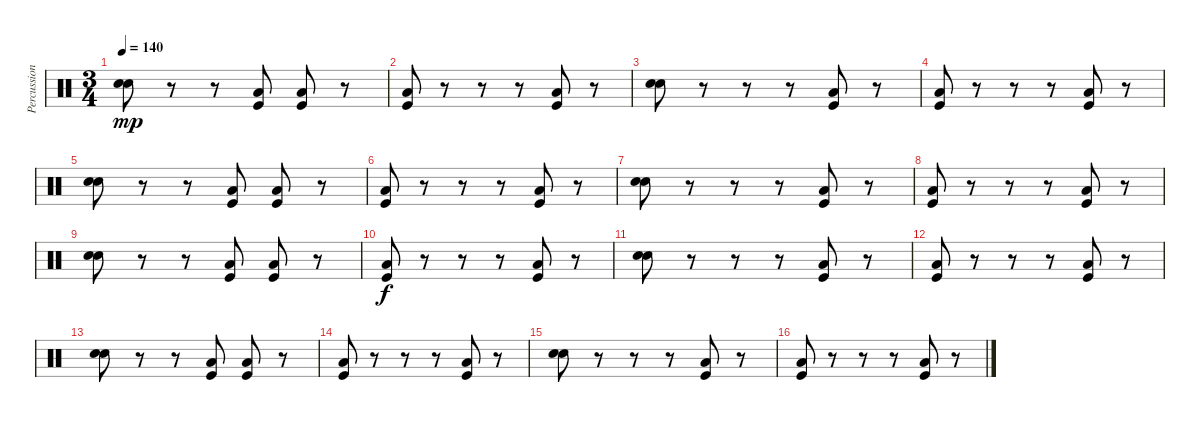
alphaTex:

\track ("Percussion" "Percussion") {instrument percussion}
\staff {score}
\articulation defaults
\ts (3 4)
\tempo 140
\clef neutral
\ks c
("Electric Snare (hit)" "Snare (hit) 2").8{dy mp} r.8 r.8 ("Kick (hit)" "Low Floor Tom (hit)").8 ("Kick (hit)" "Low Floor Tom (hit)").8 r.8 |
("Kick (hit)" "Low Floor Tom (hit)").8 r.8 r.8 r.8 ("Kick (hit)" "Low Floor Tom (hit)").8 r.8 |
("Electric Snare (hit)" "Snare (hit) 2").8 r.8 r.8 r.8 ("Kick (hit)" "Low Floor Tom (hit)").8 r.8 |
("Kick (hit)" "Low Floor Tom (hit)").8 r.8 r.8 r.8 ("Kick (hit)" "Low Floor Tom (hit)").8 r.8 |
("Electric Snare (hit)" "Snare (hit) 2").8 r.8 r.8 ("Kick (hit)" "Low Floor Tom (hit)").8 ("Kick (hit)" "Low Floor Tom (hit)").8 r.8 |
("Kick (hit)" "Low Floor Tom (hit)").8 r.8 r.8 r.8 ("Kick (hit)" "Low Floor Tom (hit)").8 r.8 |
("Electric Snare (hit)" "Snare (hit) 2").8 r.8 r.8 r.8 ("Kick (hit)" "Low Floor Tom (hit)").8 r.8 |
("Kick (hit)" "Low Floor Tom (hit)").8 r.8 r.8 r.8 ("Kick (hit)" "Low Floor Tom (hit)").8 r.8 |
("Electric Snare (hit)" "Snare (hit) 2").8 r.8 r.8 ("Kick (hit)" "Low Floor Tom (hit)").8 ("Kick (hit)" "Low Floor Tom (hit)").8 r.8 |
("Kick (hit)" "Low Floor Tom (hit)").8{dy f} r.8 r.8 r.8 ("Kick (hit)" "Low Floor Tom (hit)").8 r.8 |
("Electric Snare (hit)" "Snare (hit) 2").8 r.8 r.8 r.8 ("Kick (hit)" "Low Floor Tom (hit)").8 r.8 |
("Kick (hit)" "Low Floor Tom (hit)").8 r.8 r.8 r.8 ("Kick (hit)" "Low Floor Tom (hit)").8 r.8 |
("Electric Snare (hit)" "Snare (hit) 2").8 r.8 r.8 ("Kick (hit)" "Low Floor Tom (hit)").8 ("Kick (hit)" "Low Floor Tom (hit)").8 r.8 |
("Kick (hit)" "Low Floor Tom (hit)").8 r.8 r.8 r.8 ("Kick (hit)" "Low Floor Tom (hit)").8 r.8 |
("Electric Snare (hit)" "Snare (hit) 2").8 r.8 r.8 r.8 ("Kick (hit)" "Low Floor Tom (hit)").8 r.8 |
("Kick (hit)" "Low Floor Tom (hit)").8 r.8 r.8 r.8 ("Kick (hit)" "Low Floor Tom (hit)").8 r.8
